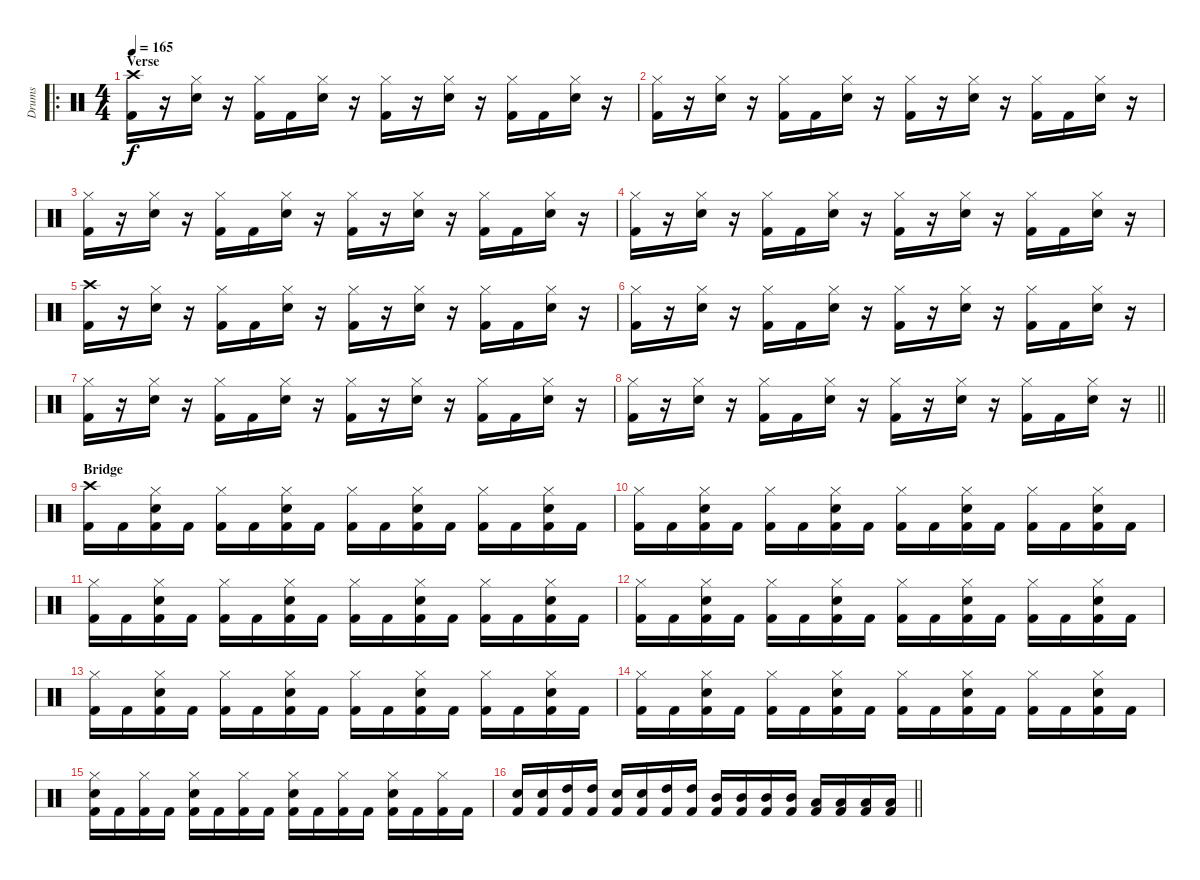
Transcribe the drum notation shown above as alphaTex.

\track ("Drums" "Drums") {instrument percussion}
\staff {score}
\articulation defaults
\ro
\ts (4 4)
\section ("" "Verse")
\tempo 165
\clef neutral
\ks c
("Crash high (hit)" "Kick (hit) 2").16{dy f} r.16 ("Hi-Hat (closed)" "Electric Snare (hit)").16 r.16 ("Hi-Hat (closed)" "Kick (hit) 2").16 "Kick (hit) 2".16 ("Hi-Hat (closed)" "Electric Snare (hit)").16 r.16 ("Hi-Hat (closed)" "Kick (hit) 2").16 r.16 ("Hi-Hat (closed)" "Electric Snare (hit)").16 r.16 ("Hi-Hat (closed)" "Kick (hit) 2").16 "Kick (hit) 2".16 ("Hi-Hat (closed)" "Electric Snare (hit)").16 r.16 |
("Hi-Hat (closed)" "Kick (hit) 2").16 r.16 ("Hi-Hat (closed)" "Electric Snare (hit)").16 r.16 ("Hi-Hat (closed)" "Kick (hit) 2").16 "Kick (hit) 2".16 ("Hi-Hat (closed)" "Electric Snare (hit)").16 r.16 ("Hi-Hat (closed)" "Kick (hit) 2").16 r.16 ("Hi-Hat (closed)" "Electric Snare (hit)").16 r.16 ("Hi-Hat (closed)" "Kick (hit) 2").16 "Kick (hit) 2".16 ("Hi-Hat (closed)" "Electric Snare (hit)").16 r.16 |
("Hi-Hat (closed)" "Kick (hit) 2").16 r.16 ("Hi-Hat (closed)" "Electric Snare (hit)").16 r.16 ("Hi-Hat (closed)" "Kick (hit) 2").16 "Kick (hit) 2".16 ("Hi-Hat (closed)" "Electric Snare (hit)").16 r.16 ("Hi-Hat (closed)" "Kick (hit) 2").16 r.16 ("Hi-Hat (closed)" "Electric Snare (hit)").16 r.16 ("Hi-Hat (closed)" "Kick (hit) 2").16 "Kick (hit) 2".16 ("Hi-Hat (closed)" "Electric Snare (hit)").16 r.16 |
("Hi-Hat (closed)" "Kick (hit) 2").16 r.16 ("Hi-Hat (closed)" "Electric Snare (hit)").16 r.16 ("Hi-Hat (closed)" "Kick (hit) 2").16 "Kick (hit) 2".16 ("Hi-Hat (closed)" "Electric Snare (hit)").16 r.16 ("Hi-Hat (closed)" "Kick (hit) 2").16 r.16 ("Hi-Hat (closed)" "Electric Snare (hit)").16 r.16 ("Hi-Hat (closed)" "Kick (hit) 2").16 "Kick (hit) 2".16 ("Hi-Hat (closed)" "Electric Snare (hit)").16 r.16 |
("Crash high (hit)" "Kick (hit) 2").16 r.16 ("Hi-Hat (closed)" "Electric Snare (hit)").16 r.16 ("Hi-Hat (closed)" "Kick (hit) 2").16 "Kick (hit) 2".16 ("Hi-Hat (closed)" "Electric Snare (hit)").16 r.16 ("Hi-Hat (closed)" "Kick (hit) 2").16 r.16 ("Hi-Hat (closed)" "Electric Snare (hit)").16 r.16 ("Hi-Hat (closed)" "Kick (hit) 2").16 "Kick (hit) 2".16 ("Hi-Hat (closed)" "Electric Snare (hit)").16 r.16 |
("Hi-Hat (closed)" "Kick (hit) 2").16 r.16 ("Hi-Hat (closed)" "Electric Snare (hit)").16 r.16 ("Hi-Hat (closed)" "Kick (hit) 2").16 "Kick (hit) 2".16 ("Hi-Hat (closed)" "Electric Snare (hit)").16 r.16 ("Hi-Hat (closed)" "Kick (hit) 2").16 r.16 ("Hi-Hat (closed)" "Electric Snare (hit)").16 r.16 ("Hi-Hat (closed)" "Kick (hit) 2").16 "Kick (hit) 2".16 ("Hi-Hat (closed)" "Electric Snare (hit)").16 r.16 |
("Hi-Hat (closed)" "Kick (hit) 2").16 r.16 ("Hi-Hat (closed)" "Electric Snare (hit)").16 r.16 ("Hi-Hat (closed)" "Kick (hit) 2").16 "Kick (hit) 2".16 ("Hi-Hat (closed)" "Electric Snare (hit)").16 r.16 ("Hi-Hat (closed)" "Kick (hit) 2").16 r.16 ("Hi-Hat (closed)" "Electric Snare (hit)").16 r.16 ("Hi-Hat (closed)" "Kick (hit) 2").16 "Kick (hit) 2".16 ("Hi-Hat (closed)" "Electric Snare (hit)").16 r.16 |
\barLineRight lightlight
("Hi-Hat (closed)" "Kick (hit) 2").16 r.16 ("Hi-Hat (closed)" "Electric Snare (hit)").16 r.16 ("Hi-Hat (closed)" "Kick (hit) 2").16 "Kick (hit) 2".16 ("Hi-Hat (closed)" "Electric Snare (hit)").16 r.16 ("Hi-Hat (closed)" "Kick (hit) 2").16 r.16 ("Hi-Hat (closed)" "Electric Snare (hit)").16 r.16 ("Hi-Hat (closed)" "Kick (hit) 2").16 "Kick (hit) 2".16 ("Hi-Hat (closed)" "Electric Snare (hit)").16 r.16 |
\section ("" "Bridge")
("Crash high (hit)" "Kick (hit) 2").16 "Kick (hit) 2".16 ("Hi-Hat (closed)" "Electric Snare (hit)" "Kick (hit) 2").16 "Kick (hit) 2".16 ("Hi-Hat (closed)" "Kick (hit) 2").16 "Kick (hit) 2".16 ("Hi-Hat (closed)" "Electric Snare (hit)" "Kick (hit) 2").16 "Kick (hit) 2".16 ("Hi-Hat (closed)" "Kick (hit) 2").16 "Kick (hit) 2".16 ("Hi-Hat (closed)" "Electric Snare (hit)" "Kick (hit) 2").16 "Kick (hit) 2".16 ("Hi-Hat (closed)" "Kick (hit) 2").16 "Kick (hit) 2".16 ("Hi-Hat (closed)" "Electric Snare (hit)" "Kick (hit) 2").16 "Kick (hit) 2".16 |
("Hi-Hat (closed)" "Kick (hit) 2").16 "Kick (hit) 2".16 ("Hi-Hat (closed)" "Electric Snare (hit)" "Kick (hit) 2").16 "Kick (hit) 2".16 ("Hi-Hat (closed)" "Kick (hit) 2").16 "Kick (hit) 2".16 ("Hi-Hat (closed)" "Electric Snare (hit)" "Kick (hit) 2").16 "Kick (hit) 2".16 ("Hi-Hat (closed)" "Kick (hit) 2").16 "Kick (hit) 2".16 ("Hi-Hat (closed)" "Electric Snare (hit)" "Kick (hit) 2").16 "Kick (hit) 2".16 ("Hi-Hat (closed)" "Kick (hit) 2").16 "Kick (hit) 2".16 ("Hi-Hat (closed)" "Electric Snare (hit)" "Kick (hit) 2").16 "Kick (hit) 2".16 |
("Hi-Hat (closed)" "Kick (hit) 2").16 "Kick (hit) 2".16 ("Hi-Hat (closed)" "Electric Snare (hit)" "Kick (hit) 2").16 "Kick (hit) 2".16 ("Hi-Hat (closed)" "Kick (hit) 2").16 "Kick (hit) 2".16 ("Hi-Hat (closed)" "Electric Snare (hit)" "Kick (hit) 2").16 "Kick (hit) 2".16 ("Hi-Hat (closed)" "Kick (hit) 2").16 "Kick (hit) 2".16 ("Hi-Hat (closed)" "Electric Snare (hit)" "Kick (hit) 2").16 "Kick (hit) 2".16 ("Hi-Hat (closed)" "Kick (hit) 2").16 "Kick (hit) 2".16 ("Hi-Hat (closed)" "Electric Snare (hit)" "Kick (hit) 2").16 "Kick (hit) 2".16 |
("Hi-Hat (closed)" "Kick (hit) 2").16 "Kick (hit) 2".16 ("Hi-Hat (closed)" "Electric Snare (hit)" "Kick (hit) 2").16 "Kick (hit) 2".16 ("Hi-Hat (closed)" "Kick (hit) 2").16 "Kick (hit) 2".16 ("Hi-Hat (closed)" "Electric Snare (hit)" "Kick (hit) 2").16 "Kick (hit) 2".16 ("Hi-Hat (closed)" "Kick (hit) 2").16 "Kick (hit) 2".16 ("Hi-Hat (closed)" "Electric Snare (hit)" "Kick (hit) 2").16 "Kick (hit) 2".16 ("Hi-Hat (closed)" "Kick (hit) 2").16 "Kick (hit) 2".16 ("Hi-Hat (closed)" "Electric Snare (hit)" "Kick (hit) 2").16 "Kick (hit) 2".16 |
("Hi-Hat (closed)" "Kick (hit) 2").16 "Kick (hit) 2".16 ("Hi-Hat (closed)" "Electric Snare (hit)" "Kick (hit) 2").16 "Kick (hit) 2".16 ("Hi-Hat (closed)" "Kick (hit) 2").16 "Kick (hit) 2".16 ("Hi-Hat (closed)" "Electric Snare (hit)" "Kick (hit) 2").16 "Kick (hit) 2".16 ("Hi-Hat (closed)" "Kick (hit) 2").16 "Kick (hit) 2".16 ("Hi-Hat (closed)" "Electric Snare (hit)" "Kick (hit) 2").16 "Kick (hit) 2".16 ("Hi-Hat (closed)" "Kick (hit) 2").16 "Kick (hit) 2".16 ("Hi-Hat (closed)" "Electric Snare (hit)" "Kick (hit) 2").16 "Kick (hit) 2".16 |
("Hi-Hat (closed)" "Kick (hit) 2").16 "Kick (hit) 2".16 ("Hi-Hat (closed)" "Electric Snare (hit)" "Kick (hit) 2").16 "Kick (hit) 2".16 ("Hi-Hat (closed)" "Kick (hit) 2").16 "Kick (hit) 2".16 ("Hi-Hat (closed)" "Electric Snare (hit)" "Kick (hit) 2").16 "Kick (hit) 2".16 ("Hi-Hat (closed)" "Kick (hit) 2").16 "Kick (hit) 2".16 ("Hi-Hat (closed)" "Electric Snare (hit)" "Kick (hit) 2").16 "Kick (hit) 2".16 ("Hi-Hat (closed)" "Kick (hit) 2").16 "Kick (hit) 2".16 ("Hi-Hat (closed)" "Electric Snare (hit)" "Kick (hit) 2").16 "Kick (hit) 2".16 |
("Hi-Hat (closed)" "Electric Snare (hit)" "Kick (hit) 2").16 "Kick (hit) 2".16 ("Hi-Hat (closed)" "Kick (hit) 2").16 "Kick (hit) 2".16 ("Hi-Hat (closed)" "Electric Snare (hit)" "Kick (hit) 2").16 "Kick (hit) 2".16 ("Hi-Hat (closed)" "Kick (hit) 2").16 "Kick (hit) 2".16 ("Hi-Hat (closed)" "Electric Snare (hit)" "Kick (hit) 2").16 "Kick (hit) 2".16 ("Hi-Hat (closed)" "Kick (hit) 2").16 "Kick (hit) 2".16 ("Hi-Hat (closed)" "Electric Snare (hit)" "Kick (hit) 2").16 "Kick (hit) 2".16 ("Hi-Hat (closed)" "Kick (hit) 2").16 "Kick (hit) 2".16 |
\barLineRight lightlight
("Electric Snare (hit)" "Kick (hit) 2").16 ("Electric Snare (hit)" "Kick (hit) 2").16 ("High Tom (hit)" "Kick (hit) 2").16 ("High Tom (hit)" "Kick (hit) 2").16 ("Electric Snare (hit)" "Kick (hit) 2").16 ("Electric Snare (hit)" "Kick (hit) 2").16 ("High Tom (hit)" "Kick (hit) 2").16 ("High Tom (hit)" "Kick (hit) 2").16 ("Mid Tom (hit)" "Kick (hit) 2").16 ("Mid Tom (hit)" "Kick (hit) 2").16 ("Mid Tom (hit)" "Kick (hit) 2").16 ("Mid Tom (hit)" "Kick (hit) 2").16 ("Low Tom (hit)" "Kick (hit) 2").16 ("Low Tom (hit)" "Kick (hit) 2").16 ("Low Tom (hit)" "Kick (hit) 2").16 ("Low Tom (hit)" "Kick (hit) 2").16
